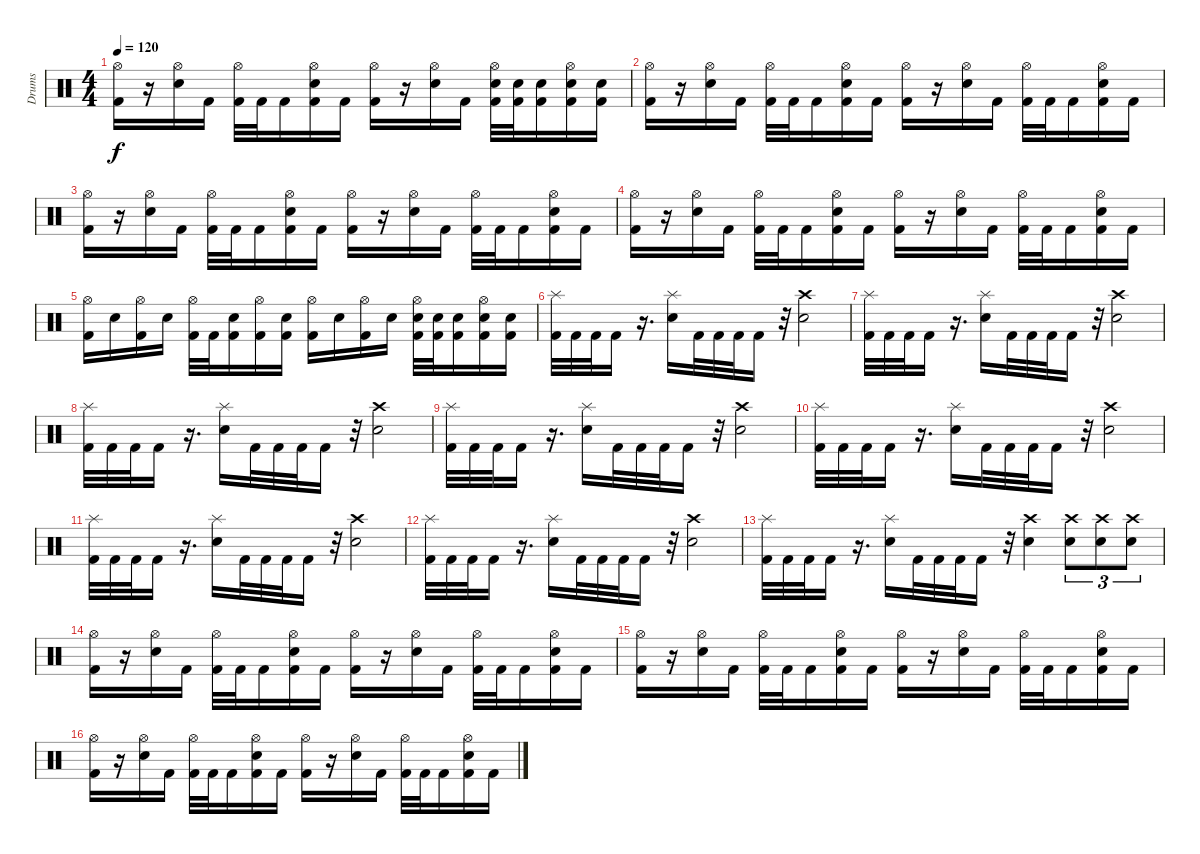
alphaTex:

\track ("Drums" "Drums") {instrument percussion}
\staff {score}
\articulation defaults
\ts (4 4)
\tempo 120
\clef neutral
\ks c
("Hi-Hat (open)" "Kick (hit) 2").16{dy f} r.16 ("Hi-Hat (open)" "Snare (hit) 2").16 "Kick (hit) 2".16 ("Hi-Hat (open)" "Kick (hit) 2").32 "Kick (hit) 2".32 "Kick (hit) 2".16 ("Hi-Hat (open)" "Snare (hit) 2" "Kick (hit) 2").16 "Kick (hit) 2".16 ("Hi-Hat (open)" "Kick (hit) 2").16 r.16 ("Hi-Hat (open)" "Snare (hit) 2").16 "Kick (hit) 2".16 ("Hi-Hat (open)" "Snare (hit) 2" "Kick (hit) 2").32 ("Snare (hit) 2" "Kick (hit) 2").32 ("Snare (hit) 2" "Kick (hit) 2").16 ("Hi-Hat (open)" "Snare (hit) 2" "Kick (hit) 2").16 ("Snare (hit) 2" "Kick (hit) 2").16 |
("Hi-Hat (open)" "Kick (hit) 2").16 r.16 ("Hi-Hat (open)" "Snare (hit) 2").16 "Kick (hit) 2".16 ("Hi-Hat (open)" "Kick (hit) 2").32 "Kick (hit) 2".32 "Kick (hit) 2".16 ("Hi-Hat (open)" "Snare (hit) 2" "Kick (hit) 2").16 "Kick (hit) 2".16 ("Hi-Hat (open)" "Kick (hit) 2").16 r.16 ("Hi-Hat (open)" "Snare (hit) 2").16 "Kick (hit) 2".16 ("Hi-Hat (open)" "Kick (hit) 2").32 "Kick (hit) 2".32 "Kick (hit) 2".16 ("Hi-Hat (open)" "Snare (hit) 2" "Kick (hit) 2").16 "Kick (hit) 2".16 |
("Hi-Hat (open)" "Kick (hit) 2").16 r.16 ("Hi-Hat (open)" "Snare (hit) 2").16 "Kick (hit) 2".16 ("Hi-Hat (open)" "Kick (hit) 2").32 "Kick (hit) 2".32 "Kick (hit) 2".16 ("Hi-Hat (open)" "Snare (hit) 2" "Kick (hit) 2").16 "Kick (hit) 2".16 ("Hi-Hat (open)" "Kick (hit) 2").16 r.16 ("Hi-Hat (open)" "Snare (hit) 2").16 "Kick (hit) 2".16 ("Hi-Hat (open)" "Kick (hit) 2").32 "Kick (hit) 2".32 "Kick (hit) 2".16 ("Hi-Hat (open)" "Snare (hit) 2" "Kick (hit) 2").16 "Kick (hit) 2".16 |
("Hi-Hat (open)" "Kick (hit) 2").16 r.16 ("Hi-Hat (open)" "Snare (hit) 2").16 "Kick (hit) 2".16 ("Hi-Hat (open)" "Kick (hit) 2").32 "Kick (hit) 2".32 "Kick (hit) 2".16 ("Hi-Hat (open)" "Snare (hit) 2" "Kick (hit) 2").16 "Kick (hit) 2".16 ("Hi-Hat (open)" "Kick (hit) 2").16 r.16 ("Hi-Hat (open)" "Snare (hit) 2").16 "Kick (hit) 2".16 ("Hi-Hat (open)" "Kick (hit) 2").32 "Kick (hit) 2".32 "Kick (hit) 2".16 ("Hi-Hat (open)" "Snare (hit) 2" "Kick (hit) 2").16 "Kick (hit) 2".16 |
("Hi-Hat (open)" "Kick (hit) 2").16 "Snare (hit) 2".16 ("Hi-Hat (open)" "Kick (hit) 2").16 "Snare (hit) 2".16 ("Hi-Hat (open)" "Kick (hit) 2").32 "Kick (hit) 2".32 ("Snare (hit) 2" "Kick (hit) 2").16 ("Hi-Hat (open)" "Kick (hit) 2").16 ("Snare (hit) 2" "Kick (hit) 2").16 ("Hi-Hat (open)" "Kick (hit) 2").16 "Snare (hit) 2".16 ("Hi-Hat (open)" "Kick (hit) 2").16 "Snare (hit) 2".16 ("Hi-Hat (open)" "Snare (hit) 2" "Kick (hit) 2").32 ("Snare (hit) 2" "Kick (hit) 2").32 ("Snare (hit) 2" "Kick (hit) 2").16 ("Hi-Hat (open)" "Snare (hit) 2" "Kick (hit) 2").16 ("Snare (hit) 2" "Kick (hit) 2").16 |
("Splash (hit)" "Kick (hit) 2").32 "Kick (hit) 2".32 "Kick (hit) 2".32 "Kick (hit) 2".16 r.16{d} ("Splash (hit)" "Snare (hit) 2").16 "Kick (hit) 2".32 "Kick (hit) 2".32 "Kick (hit) 2".32 "Kick (hit) 2".16 r.32 ("Crash high (hit)" "Snare (hit) 2").2 |
("Splash (hit)" "Kick (hit) 2").32 "Kick (hit) 2".32 "Kick (hit) 2".32 "Kick (hit) 2".16 r.16{d} ("Splash (hit)" "Snare (hit) 2").16 "Kick (hit) 2".32 "Kick (hit) 2".32 "Kick (hit) 2".32 "Kick (hit) 2".16 r.32 ("Crash high (hit)" "Snare (hit) 2").2 |
("Splash (hit)" "Kick (hit) 2").32 "Kick (hit) 2".32 "Kick (hit) 2".32 "Kick (hit) 2".16 r.16{d} ("Splash (hit)" "Snare (hit) 2").16 "Kick (hit) 2".32 "Kick (hit) 2".32 "Kick (hit) 2".32 "Kick (hit) 2".16 r.32 ("Crash high (hit)" "Snare (hit) 2").2 |
("Splash (hit)" "Kick (hit) 2").32 "Kick (hit) 2".32 "Kick (hit) 2".32 "Kick (hit) 2".16 r.16{d} ("Splash (hit)" "Snare (hit) 2").16 "Kick (hit) 2".32 "Kick (hit) 2".32 "Kick (hit) 2".32 "Kick (hit) 2".16 r.32 ("Crash high (hit)" "Snare (hit) 2").2 |
("Splash (hit)" "Kick (hit) 2").32 "Kick (hit) 2".32 "Kick (hit) 2".32 "Kick (hit) 2".16 r.16{d} ("Splash (hit)" "Snare (hit) 2").16 "Kick (hit) 2".32 "Kick (hit) 2".32 "Kick (hit) 2".32 "Kick (hit) 2".16 r.32 ("Crash high (hit)" "Snare (hit) 2").2 |
("Splash (hit)" "Kick (hit) 2").32 "Kick (hit) 2".32 "Kick (hit) 2".32 "Kick (hit) 2".16 r.16{d} ("Splash (hit)" "Snare (hit) 2").16 "Kick (hit) 2".32 "Kick (hit) 2".32 "Kick (hit) 2".32 "Kick (hit) 2".16 r.32 ("Crash high (hit)" "Snare (hit) 2").2 |
("Splash (hit)" "Kick (hit) 2").32 "Kick (hit) 2".32 "Kick (hit) 2".32 "Kick (hit) 2".16 r.16{d} ("Splash (hit)" "Snare (hit) 2").16 "Kick (hit) 2".32 "Kick (hit) 2".32 "Kick (hit) 2".32 "Kick (hit) 2".16 r.32 ("Crash high (hit)" "Snare (hit) 2").2 |
("Splash (hit)" "Kick (hit) 2").32 "Kick (hit) 2".32 "Kick (hit) 2".32 "Kick (hit) 2".16 r.16{d} ("Splash (hit)" "Snare (hit) 2").16 "Kick (hit) 2".32 "Kick (hit) 2".32 "Kick (hit) 2".32 "Kick (hit) 2".16 r.32 ("Crash high (hit)" "Snare (hit) 2").4 ("Crash high (hit)" "Snare (hit) 2").8{tu (3 2)} ("Crash high (hit)" "Snare (hit) 2").8{tu (3 2)} ("Crash high (hit)" "Snare (hit) 2").8{tu (3 2)} |
("Hi-Hat (open)" "Kick (hit) 2").16 r.16 ("Hi-Hat (open)" "Snare (hit) 2").16 "Kick (hit) 2".16 ("Hi-Hat (open)" "Kick (hit) 2").32 "Kick (hit) 2".32 "Kick (hit) 2".16 ("Hi-Hat (open)" "Snare (hit) 2" "Kick (hit) 2").16 "Kick (hit) 2".16 ("Hi-Hat (open)" "Kick (hit) 2").16 r.16 ("Hi-Hat (open)" "Snare (hit) 2").16 "Kick (hit) 2".16 ("Hi-Hat (open)" "Kick (hit) 2").32 "Kick (hit) 2".32 "Kick (hit) 2".16 ("Hi-Hat (open)" "Snare (hit) 2" "Kick (hit) 2").16 "Kick (hit) 2".16 |
("Hi-Hat (open)" "Kick (hit) 2").16 r.16 ("Hi-Hat (open)" "Snare (hit) 2").16 "Kick (hit) 2".16 ("Hi-Hat (open)" "Kick (hit) 2").32 "Kick (hit) 2".32 "Kick (hit) 2".16 ("Hi-Hat (open)" "Snare (hit) 2" "Kick (hit) 2").16 "Kick (hit) 2".16 ("Hi-Hat (open)" "Kick (hit) 2").16 r.16 ("Hi-Hat (open)" "Snare (hit) 2").16 "Kick (hit) 2".16 ("Hi-Hat (open)" "Kick (hit) 2").32 "Kick (hit) 2".32 "Kick (hit) 2".16 ("Hi-Hat (open)" "Snare (hit) 2" "Kick (hit) 2").16 "Kick (hit) 2".16 |
("Hi-Hat (open)" "Kick (hit) 2").16 r.16 ("Hi-Hat (open)" "Snare (hit) 2").16 "Kick (hit) 2".16 ("Hi-Hat (open)" "Kick (hit) 2").32 "Kick (hit) 2".32 "Kick (hit) 2".16 ("Hi-Hat (open)" "Snare (hit) 2" "Kick (hit) 2").16 "Kick (hit) 2".16 ("Hi-Hat (open)" "Kick (hit) 2").16 r.16 ("Hi-Hat (open)" "Snare (hit) 2").16 "Kick (hit) 2".16 ("Hi-Hat (open)" "Kick (hit) 2").32 "Kick (hit) 2".32 "Kick (hit) 2".16 ("Hi-Hat (open)" "Snare (hit) 2" "Kick (hit) 2").16 "Kick (hit) 2".16
